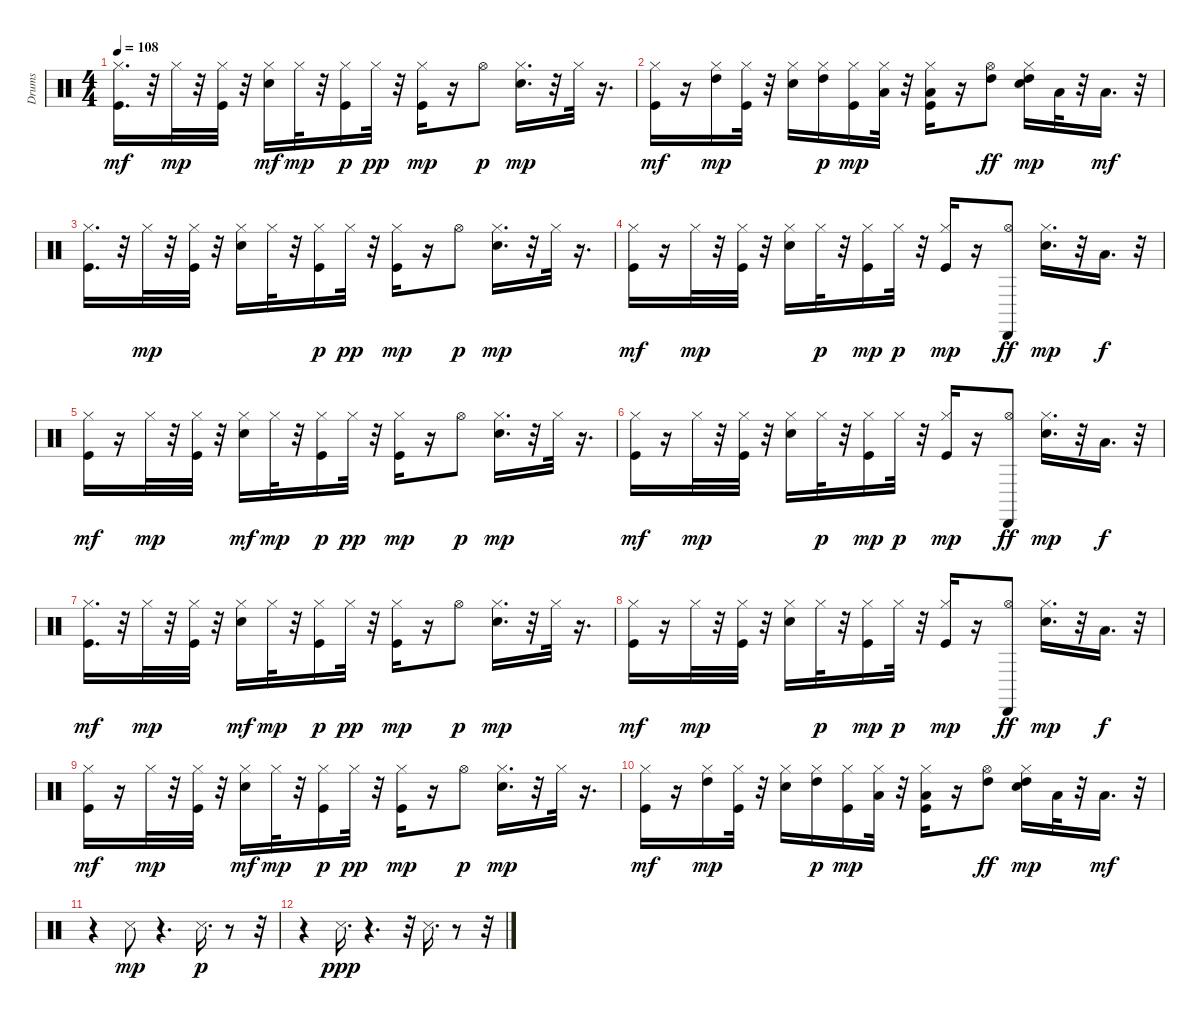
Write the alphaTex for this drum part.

\track ("Drums" "Drums") {instrument percussion}
\staff {score}
\articulation defaults
\ts (4 4)
\tempo 108
\clef neutral
\ks c
("Hi-Hat (closed)" "Kick (hit)").16{d dy mf} r.32 "Hi-Hat (closed)".32{dy mp} r.32 ("Hi-Hat (closed)" "Kick (hit)").32 r.32 ("Hi-Hat (closed)" "Snare (hit) 2").16{dy mf} "Hi-Hat (closed)".32{dy mp} r.32 ("Hi-Hat (closed)" "Kick (hit)").16{dy p} "Hi-Hat (closed)".32{dy pp} r.32 ("Hi-Hat (closed)" "Kick (hit)").16{dy mp} r.16 "Hi-Hat (open)".8{dy p} ("Hi-Hat (closed)" "Snare (hit) 2").16{d dy mp} r.32 "Hi-Hat (closed)".32 r.16{d} |
("Hi-Hat (closed)" "Kick (hit)").16{dy mf} r.16 ("Hi-Hat (closed)" "High Tom (hit)").16{dy mp} ("Hi-Hat (closed)" "Kick (hit)").32 r.32 ("Hi-Hat (closed)" "Snare (hit) 2").16 ("Hi-Hat (closed)" "High Tom (hit)").16{dy p} ("Hi-Hat (closed)" "Kick (hit)").16{dy mp} ("Hi-Hat (closed)" "Low Tom (hit)").32 r.32 ("Hi-Hat (closed)" "Low Floor Tom (hit)" "Kick (hit)").16 r.16 ("Hi-Hat (open)" "High Tom (hit)").8{dy ff} ("Hi-Hat (closed)" "Snare (hit) 2" "High Tom (hit)").16{dy mp} "Low Tom (hit)".32 r.32 "Low Floor Tom (hit)".16{d dy mf} r.32 |
("Hi-Hat (closed)" "Kick (hit)").16{d} r.32 "Hi-Hat (closed)".32{dy mp} r.32 ("Hi-Hat (closed)" "Kick (hit)").32 r.32 ("Snare (hit) 2" "Hi-Hat (closed)").16 "Hi-Hat (closed)".32 r.32 ("Hi-Hat (closed)" "Kick (hit)").16{dy p} "Hi-Hat (closed)".32{dy pp} r.32 ("Hi-Hat (closed)" "Kick (hit)").16{dy mp} r.16 "Hi-Hat (open)".8{dy p} ("Hi-Hat (closed)" "Snare (hit) 2").16{d dy mp} r.32 "Hi-Hat (closed)".32 r.16{d} |
("Hi-Hat (closed)" "Kick (hit)").16{dy mf} r.16 "Hi-Hat (closed)".32{dy mp} r.32 ("Hi-Hat (closed)" "Kick (hit)").32 r.32 ("Hi-Hat (closed)" "Snare (hit) 2").16 "Hi-Hat (closed)".32{dy p} r.32 ("Hi-Hat (closed)" "Kick (hit)").16{dy mp} "Hi-Hat (closed)".32{dy p} r.32 ("Hi-Hat (closed)" "Kick (hit)").16{dy mp} r.16 ("Hi-Hat (open)" "Cabasa (hit)").8{dy ff} ("Hi-Hat (closed)" "Snare (hit) 2").16{d dy mp} r.32 "Low Floor Tom (hit)".16{d dy f} r.32 |
("Hi-Hat (closed)" "Kick (hit)").16{dy mf} r.16 "Hi-Hat (closed)".32{dy mp} r.32 ("Hi-Hat (closed)" "Kick (hit)").32 r.32 ("Hi-Hat (closed)" "Snare (hit) 2").16{dy mf} "Hi-Hat (closed)".32{dy mp} r.32 ("Hi-Hat (closed)" "Kick (hit)").16{dy p} "Hi-Hat (closed)".32{dy pp} r.32 ("Hi-Hat (closed)" "Kick (hit)").16{dy mp} r.16 "Hi-Hat (open)".8{dy p} ("Hi-Hat (closed)" "Snare (hit) 2").16{d dy mp} r.32 "Hi-Hat (closed)".32 r.16{d} |
("Hi-Hat (closed)" "Kick (hit)").16{dy mf} r.16 "Hi-Hat (closed)".32{dy mp} r.32 ("Hi-Hat (closed)" "Kick (hit)").32 r.32 ("Hi-Hat (closed)" "Snare (hit) 2").16 "Hi-Hat (closed)".32{dy p} r.32 ("Hi-Hat (closed)" "Kick (hit)").16{dy mp} "Hi-Hat (closed)".32{dy p} r.32 ("Hi-Hat (closed)" "Kick (hit)").16{dy mp} r.16 ("Hi-Hat (open)" "Cabasa (hit)").8{dy ff} ("Hi-Hat (closed)" "Snare (hit) 2").16{d dy mp} r.32 "Low Floor Tom (hit)".16{d dy f} r.32 |
("Hi-Hat (closed)" "Kick (hit)").16{d dy mf} r.32 "Hi-Hat (closed)".32{dy mp} r.32 ("Hi-Hat (closed)" "Kick (hit)").32 r.32 ("Hi-Hat (closed)" "Snare (hit) 2").16{dy mf} "Hi-Hat (closed)".32{dy mp} r.32 ("Hi-Hat (closed)" "Kick (hit)").16{dy p} "Hi-Hat (closed)".32{dy pp} r.32 ("Hi-Hat (closed)" "Kick (hit)").16{dy mp} r.16 "Hi-Hat (open)".8{dy p} ("Hi-Hat (closed)" "Snare (hit) 2").16{d dy mp} r.32 "Hi-Hat (closed)".32 r.16{d} |
("Hi-Hat (closed)" "Kick (hit)").16{dy mf} r.16 "Hi-Hat (closed)".32{dy mp} r.32 ("Hi-Hat (closed)" "Kick (hit)").32 r.32 ("Hi-Hat (closed)" "Snare (hit) 2").16 "Hi-Hat (closed)".32{dy p} r.32 ("Hi-Hat (closed)" "Kick (hit)").16{dy mp} "Hi-Hat (closed)".32{dy p} r.32 ("Hi-Hat (closed)" "Kick (hit)").16{dy mp} r.16 ("Hi-Hat (open)" "Cabasa (hit)").8{dy ff} ("Hi-Hat (closed)" "Snare (hit) 2").16{d dy mp} r.32 "Low Floor Tom (hit)".16{d dy f} r.32 |
("Hi-Hat (closed)" "Kick (hit)").16{dy mf} r.16 "Hi-Hat (closed)".32{dy mp} r.32 ("Hi-Hat (closed)" "Kick (hit)").32 r.32 ("Hi-Hat (closed)" "Snare (hit) 2").16{dy mf} "Hi-Hat (closed)".32{dy mp} r.32 ("Hi-Hat (closed)" "Kick (hit)").16{dy p} "Hi-Hat (closed)".32{dy pp} r.32 ("Hi-Hat (closed)" "Kick (hit)").16{dy mp} r.16 "Hi-Hat (open)".8{dy p} ("Hi-Hat (closed)" "Snare (hit) 2").16{d dy mp} r.32 "Hi-Hat (closed)".32 r.16{d} |
("Hi-Hat (closed)" "Kick (hit)").16{dy mf} r.16 ("Hi-Hat (closed)" "High Tom (hit)").16{dy mp} ("Hi-Hat (closed)" "Kick (hit)").32 r.32 ("Hi-Hat (closed)" "Snare (hit) 2").16 ("Hi-Hat (closed)" "High Tom (hit)").16{dy p} ("Hi-Hat (closed)" "Kick (hit)").16{dy mp} ("Hi-Hat (closed)" "Low Tom (hit)").32 r.32 ("Kick (hit)" "Low Floor Tom (hit)" "Hi-Hat (closed)").16 r.16 ("Hi-Hat (open)" "High Tom (hit)").8{dy ff} ("Hi-Hat (closed)" "Snare (hit) 2" "High Tom (hit)").16{dy mp} "Low Tom (hit)".32 r.32 "Low Floor Tom (hit)".16{d dy mf} r.32 |
r.4 "Snare (side stick) 3".8{dy mp} r.4{d} "Snare (side stick) 3".16{d dy p} r.8 r.32 |
r.4 "Snare (side stick) 3".16{d dy ppp} r.4{d} r.32 "Snare (side stick) 3".16{d} r.8 r.32
